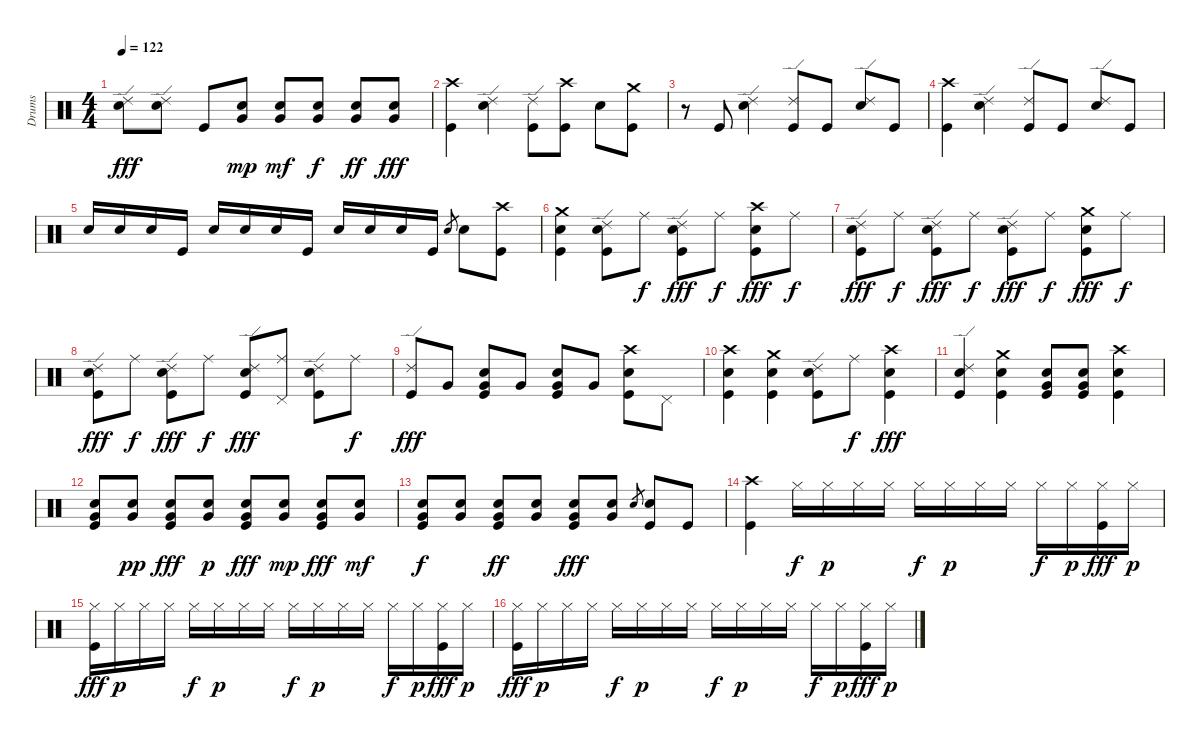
\track ("Drums" "Drums") {instrument percussion}
\staff {score}
\articulation defaults
\ts (4 4)
\tempo 122
\clef neutral
\ks c
("Ride (edge) 2" "Snare (hit) 2").8{dy fff} ("Ride (edge) 2" "Snare (hit) 2").8 "Kick (hit)".8 ("Very Low Tom (hit)" "Snare (hit) 2").8{dy mp} ("Very Low Tom (hit)" "Snare (hit) 2").8{dy mf} ("Very Low Tom (hit)" "Snare (hit) 2").8{dy f} ("Very Low Tom (hit)" "Snare (hit) 2").8{dy ff} ("Very Low Tom (hit)" "Snare (hit) 2").8{dy fff} |
("Crash high (hit)" "Kick (hit)").4 ("Ride (edge) 2" "Snare (hit) 2").4 ("Ride (edge) 2" "Kick (hit)").8 ("Crash high (hit)" "Kick (hit)").8 "Snare (hit) 2".8 ("Crash medium (hit)" "Kick (hit)").8 |
r.8 "Kick (hit)".8 ("Ride (edge) 2" "Snare (hit) 2").4 ("Ride (edge) 2" "Kick (hit)").8 "Kick (hit)".8 ("Ride (edge) 2" "Snare (hit) 2").8 "Kick (hit)".8 |
("Crash high (hit)" "Kick (hit)").4 ("Ride (edge) 2" "Snare (hit) 2").4 ("Ride (edge) 2" "Kick (hit)").8 "Kick (hit)".8 ("Ride (edge) 2" "Snare (hit) 2").8 "Kick (hit)".8 |
"Snare (hit) 2".16 "Snare (hit) 2".16 "Snare (hit) 2".16 "Kick (hit)".16 "Snare (hit) 2".16 "Snare (hit) 2".16 "Snare (hit) 2".16 "Kick (hit)".16 "Snare (hit) 2".16 "Snare (hit) 2".16 "Snare (hit) 2".16 "Kick (hit)".16 "Snare (hit) 2".8{gr} "Snare (hit) 2".8 ("Crash high (hit)" "Kick (hit)").8 |
("Crash medium (hit)" "Snare (hit) 2" "Kick (hit)").4 ("Ride (edge) 2" "Snare (hit) 2" "Kick (hit)").8 "Ride (middle)".8{dy f} ("Ride (edge) 2" "Snare (hit) 2" "Kick (hit)").8{dy fff} "Ride (middle)".8{dy f} ("Crash high (hit)" "Snare (hit) 2" "Kick (hit)").8{dy fff} "Ride (middle)".8{dy f} |
("Ride (edge) 2" "Snare (hit) 2" "Kick (hit)").8{dy fff} "Ride (middle)".8{dy f} ("Ride (edge) 2" "Snare (hit) 2" "Kick (hit)").8{dy fff} "Ride (middle)".8{dy f} ("Ride (edge) 2" "Snare (hit) 2" "Kick (hit)").8{dy fff} "Ride (middle)".8{dy f} ("Crash medium (hit)" "Snare (hit) 2" "Kick (hit)").8{dy fff} "Ride (middle)".8{dy f} |
("Ride (edge) 2" "Snare (hit) 2" "Kick (hit)").8{dy fff} "Ride (middle)".8{dy f} ("Ride (edge) 2" "Snare (hit) 2" "Kick (hit)").8{dy fff} "Ride (middle)".8{dy f} ("Ride (edge) 2" "Snare (hit) 2" "Kick (hit)").8{dy fff} ("Ride (middle)" "Pedal Hi-Hat (hit)").8 ("Ride (edge) 2" "Snare (hit) 2" "Kick (hit)").8 "Ride (middle)".8{dy f} |
("Ride (edge) 2" "Kick (hit)").8{dy fff} "Very Low Tom (hit)".8 ("Very Low Tom (hit)" "Snare (hit) 2" "Kick (hit)").8 "Very Low Tom (hit)".8 ("Very Low Tom (hit)" "Snare (hit) 2" "Kick (hit)").8 "Very Low Tom (hit)".8 ("Crash high (hit)" "Snare (hit) 2" "Kick (hit)").8 "Pedal Hi-Hat (hit)".8 |
("Crash high (hit)" "Snare (hit) 2" "Kick (hit)").4 ("Crash medium (hit)" "Snare (hit) 2" "Kick (hit)").4 ("Ride (edge) 2" "Snare (hit) 2" "Kick (hit)").8 "Ride (middle)".8{dy f} ("Crash high (hit)" "Snare (hit) 2" "Kick (hit)").4{dy fff} |
("Ride (edge) 2" "Snare (hit) 2" "Kick (hit)").4 ("Crash medium (hit)" "Snare (hit) 2" "Kick (hit)").4 ("Very Low Tom (hit)" "Snare (hit) 2" "Kick (hit)").8 ("Very Low Tom (hit)" "Snare (hit) 2" "Kick (hit)").8 ("Crash high (hit)" "Snare (hit) 2" "Kick (hit)").4 |
("Very Low Tom (hit)" "Snare (hit) 2" "Kick (hit)").8 ("Very Low Tom (hit)" "Snare (hit) 2").8{dy pp} ("Very Low Tom (hit)" "Snare (hit) 2" "Kick (hit)").8{dy fff} ("Very Low Tom (hit)" "Snare (hit) 2").8{dy p} ("Very Low Tom (hit)" "Snare (hit) 2" "Kick (hit)").8{dy fff} ("Very Low Tom (hit)" "Snare (hit) 2").8{dy mp} ("Very Low Tom (hit)" "Snare (hit) 2" "Kick (hit)").8{dy fff} ("Very Low Tom (hit)" "Snare (hit) 2").8{dy mf} |
("Very Low Tom (hit)" "Snare (hit) 2" "Kick (hit)").8{dy f} ("Very Low Tom (hit)" "Snare (hit) 2").8 ("Very Low Tom (hit)" "Snare (hit) 2" "Kick (hit)").8{dy ff} ("Very Low Tom (hit)" "Snare (hit) 2").8 ("Very Low Tom (hit)" "Snare (hit) 2" "Kick (hit)").8{dy fff} ("Very Low Tom (hit)" "Snare (hit) 2").8 "Snare (hit) 2".8{gr} ("Snare (hit) 2" "Kick (hit)").8 "Kick (hit)".8 |
("Crash high (hit)" "Kick (hit)").4 "Hi-Hat (closed)".16{dy f} "Hi-Hat (closed)".16{dy p} "Hi-Hat (closed)".16 "Hi-Hat (closed)".16 "Hi-Hat (closed)".16{dy f} "Hi-Hat (closed)".16{dy p} "Hi-Hat (closed)".16 "Hi-Hat (closed)".16 "Hi-Hat (closed)".16{dy f} "Hi-Hat (closed)".16{dy p} ("Hi-Hat (closed)" "Kick (hit)").16{dy fff} "Hi-Hat (closed)".16{dy p} |
("Hi-Hat (closed)" "Kick (hit)").16{dy fff} "Hi-Hat (closed)".16{dy p} "Hi-Hat (closed)".16 "Hi-Hat (closed)".16 "Hi-Hat (closed)".16{dy f} "Hi-Hat (closed)".16{dy p} "Hi-Hat (closed)".16 "Hi-Hat (closed)".16 "Hi-Hat (closed)".16{dy f} "Hi-Hat (closed)".16{dy p} "Hi-Hat (closed)".16 "Hi-Hat (closed)".16 "Hi-Hat (closed)".16{dy f} "Hi-Hat (closed)".16{dy p} ("Hi-Hat (closed)" "Kick (hit)").16{dy fff} "Hi-Hat (closed)".16{dy p} |
("Hi-Hat (closed)" "Kick (hit)").16{dy fff} "Hi-Hat (closed)".16{dy p} "Hi-Hat (closed)".16 "Hi-Hat (closed)".16 "Hi-Hat (closed)".16{dy f} "Hi-Hat (closed)".16{dy p} "Hi-Hat (closed)".16 "Hi-Hat (closed)".16 "Hi-Hat (closed)".16{dy f} "Hi-Hat (closed)".16{dy p} "Hi-Hat (closed)".16 "Hi-Hat (closed)".16 "Hi-Hat (closed)".16{dy f} "Hi-Hat (closed)".16{dy p} ("Hi-Hat (closed)" "Kick (hit)").16{dy fff} "Hi-Hat (closed)".16{dy p}
